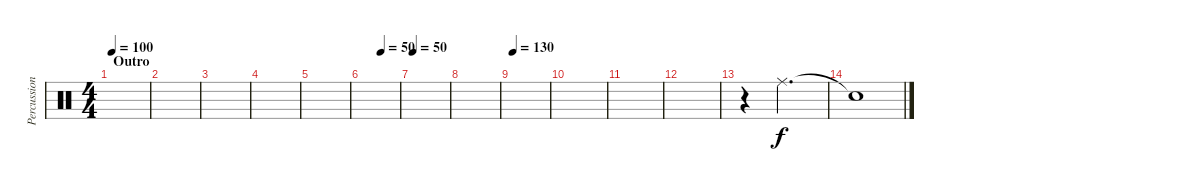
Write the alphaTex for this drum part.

\track ("Percussion" "Percussion") {instrument percussion}
\staff {score}
\articulation defaults
\ts (4 4)
\section ("" "Outro")
\tempo 100
\clef neutral
\ks c
|
|
|
|
|
\tempo (50 0.5)
|
\tempo 50
|
|
\tempo 130
|
|
|
|
r.4 "Ride (middle)".2{d} |
"Snare (hit)"{t}.1
